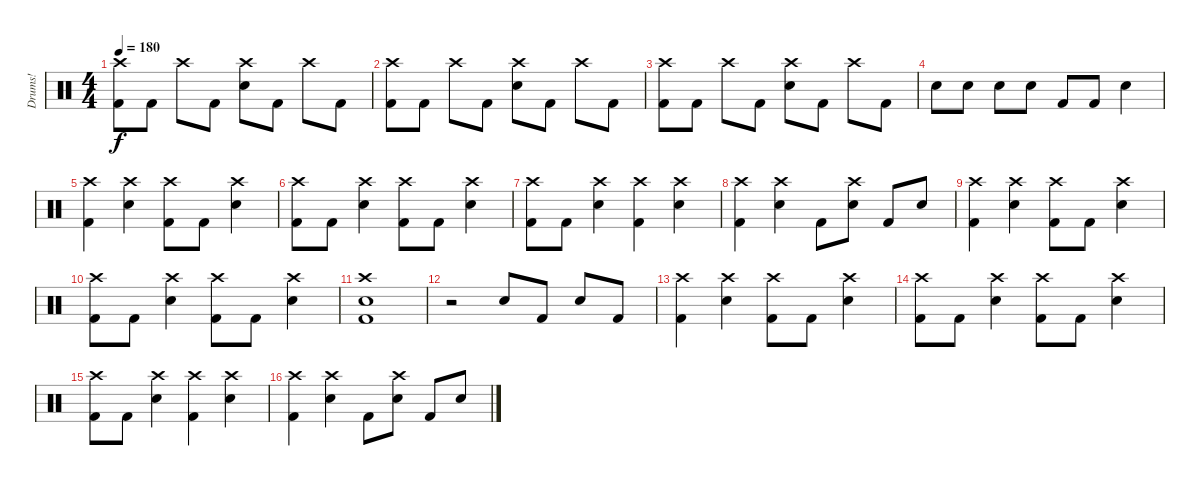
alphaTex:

\track ("Drums!" "Drums!") {instrument percussion}
\staff {score}
\articulation defaults
\ts (4 4)
\tempo 180
\clef neutral
\ks c
("Crash high (hit)" "Kick (hit) 2").8{dy f} "Kick (hit) 2".8 "Crash high (hit)".8 "Kick (hit) 2".8 ("Crash high (hit)" "Electric Snare (hit)").8 "Kick (hit) 2".8 "Crash high (hit)".8 "Kick (hit) 2".8 |
("Crash high (hit)" "Kick (hit) 2").8 "Kick (hit) 2".8 "Crash high (hit)".8 "Kick (hit) 2".8 ("Crash high (hit)" "Electric Snare (hit)").8 "Kick (hit) 2".8 "Crash high (hit)".8 "Kick (hit) 2".8 |
("Crash high (hit)" "Kick (hit) 2").8 "Kick (hit) 2".8 "Crash high (hit)".8 "Kick (hit) 2".8 ("Crash high (hit)" "Electric Snare (hit)").8 "Kick (hit) 2".8 "Crash high (hit)".8 "Kick (hit) 2".8 |
"Electric Snare (hit)".8 "Electric Snare (hit)".8 "Electric Snare (hit)".8 "Electric Snare (hit)".8 "Kick (hit) 2".8 "Kick (hit) 2".8 "Electric Snare (hit)".4 |
("Crash high (hit)" "Kick (hit) 2").4 ("Crash high (hit)" "Electric Snare (hit)").4 ("Crash high (hit)" "Kick (hit) 2").8 "Kick (hit) 2".8 ("Crash high (hit)" "Electric Snare (hit)").4 |
("Crash high (hit)" "Kick (hit) 2").8 "Kick (hit) 2".8 ("Crash high (hit)" "Electric Snare (hit)").4 ("Crash high (hit)" "Kick (hit) 2").8 "Kick (hit) 2".8 ("Crash high (hit)" "Electric Snare (hit)").4 |
("Crash high (hit)" "Kick (hit) 2").8 "Kick (hit) 2".8 ("Crash high (hit)" "Electric Snare (hit)").4 ("Crash high (hit)" "Kick (hit) 2").4 ("Crash high (hit)" "Electric Snare (hit)").4 |
("Crash high (hit)" "Kick (hit) 2").4 ("Crash high (hit)" "Electric Snare (hit)").4 "Kick (hit) 2".8 ("Crash high (hit)" "Electric Snare (hit)").8 "Kick (hit) 2".8 "Electric Snare (hit)".8 |
("Crash high (hit)" "Kick (hit) 2").4 ("Crash high (hit)" "Electric Snare (hit)").4 ("Crash high (hit)" "Kick (hit) 2").8 "Kick (hit) 2".8 ("Crash high (hit)" "Electric Snare (hit)").4 |
("Crash high (hit)" "Kick (hit) 2").8 "Kick (hit) 2".8 ("Crash high (hit)" "Electric Snare (hit)").4 ("Crash high (hit)" "Kick (hit) 2").8 "Kick (hit) 2".8 ("Crash high (hit)" "Electric Snare (hit)").4 |
("Crash high (hit)" "Electric Snare (hit)" "Kick (hit) 2").1 |
r.2 "Electric Snare (hit)".8 "Kick (hit) 2".8 "Electric Snare (hit)".8 "Kick (hit) 2".8 |
("Crash high (hit)" "Kick (hit) 2").4 ("Crash high (hit)" "Electric Snare (hit)").4 ("Crash high (hit)" "Kick (hit) 2").8 "Kick (hit) 2".8 ("Crash high (hit)" "Electric Snare (hit)").4 |
("Crash high (hit)" "Kick (hit) 2").8 "Kick (hit) 2".8 ("Crash high (hit)" "Electric Snare (hit)").4 ("Crash high (hit)" "Kick (hit) 2").8 "Kick (hit) 2".8 ("Crash high (hit)" "Electric Snare (hit)").4 |
("Crash high (hit)" "Kick (hit) 2").8 "Kick (hit) 2".8 ("Crash high (hit)" "Electric Snare (hit)").4 ("Crash high (hit)" "Kick (hit) 2").4 ("Crash high (hit)" "Electric Snare (hit)").4 |
("Crash high (hit)" "Kick (hit) 2").4 ("Crash high (hit)" "Electric Snare (hit)").4 "Kick (hit) 2".8 ("Crash high (hit)" "Electric Snare (hit)").8 "Kick (hit) 2".8 "Electric Snare (hit)".8
